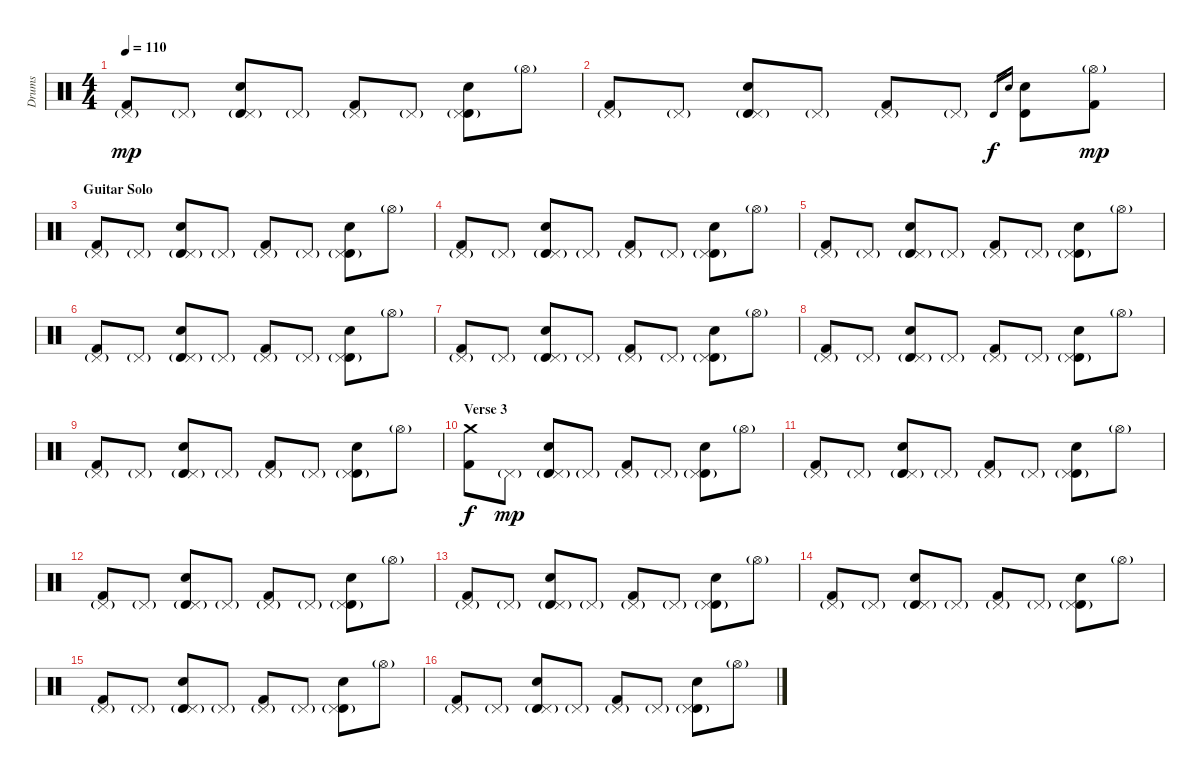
\track ("Drums" "Drums") {instrument percussion}
\staff {score}
\articulation defaults
\ts (4 4)
\tempo 110
\clef neutral
\ks c
("Kick (hit) 2" "Pedal Hi-Hat (hit)"{g}).8{dy mp} "Pedal Hi-Hat (hit)"{g}.8 ("Timbale high (hit)" "Electric Snare (hit)" "Pedal Hi-Hat (hit)"{g}).8 "Pedal Hi-Hat (hit)"{g}.8 ("Kick (hit) 2" "Pedal Hi-Hat (hit)"{g}).8 "Pedal Hi-Hat (hit)"{g}.8 ("Timbale high (hit)" "Electric Snare (hit)" "Pedal Hi-Hat (hit)"{g}).8 "Hi-Hat (open)"{g}.8 |
("Kick (hit) 2" "Pedal Hi-Hat (hit)"{g}).8 "Pedal Hi-Hat (hit)"{g}.8 ("Timbale high (hit)" "Electric Snare (hit)" "Pedal Hi-Hat (hit)"{g}).8 "Pedal Hi-Hat (hit)"{g}.8 ("Kick (hit) 2" "Pedal Hi-Hat (hit)"{g}).8 "Pedal Hi-Hat (hit)"{g}.8 "Timbale high (hit)".16{gr dy f} "Electric Snare (hit)".16{gr} ("Timbale high (hit)" "Electric Snare (hit)").8 ("Kick (hit) 2" "Hi-Hat (open)"{g}).8{dy mp} |
\section ("" "Guitar Solo")
("Kick (hit) 2" "Pedal Hi-Hat (hit)"{g}).8 "Pedal Hi-Hat (hit)"{g}.8 ("Timbale high (hit)" "Electric Snare (hit)" "Pedal Hi-Hat (hit)"{g}).8 "Pedal Hi-Hat (hit)"{g}.8 ("Kick (hit) 2" "Pedal Hi-Hat (hit)"{g}).8 "Pedal Hi-Hat (hit)"{g}.8 ("Timbale high (hit)" "Electric Snare (hit)" "Pedal Hi-Hat (hit)"{g}).8 "Hi-Hat (open)"{g}.8 |
("Kick (hit) 2" "Pedal Hi-Hat (hit)"{g}).8 "Pedal Hi-Hat (hit)"{g}.8 ("Timbale high (hit)" "Electric Snare (hit)" "Pedal Hi-Hat (hit)"{g}).8 "Pedal Hi-Hat (hit)"{g}.8 ("Kick (hit) 2" "Pedal Hi-Hat (hit)"{g}).8 "Pedal Hi-Hat (hit)"{g}.8 ("Timbale high (hit)" "Electric Snare (hit)" "Pedal Hi-Hat (hit)"{g}).8 "Hi-Hat (open)"{g}.8 |
("Kick (hit) 2" "Pedal Hi-Hat (hit)"{g}).8 "Pedal Hi-Hat (hit)"{g}.8 ("Timbale high (hit)" "Electric Snare (hit)" "Pedal Hi-Hat (hit)"{g}).8 "Pedal Hi-Hat (hit)"{g}.8 ("Kick (hit) 2" "Pedal Hi-Hat (hit)"{g}).8 "Pedal Hi-Hat (hit)"{g}.8 ("Timbale high (hit)" "Electric Snare (hit)" "Pedal Hi-Hat (hit)"{g}).8 "Hi-Hat (open)"{g}.8 |
("Kick (hit) 2" "Pedal Hi-Hat (hit)"{g}).8 "Pedal Hi-Hat (hit)"{g}.8 ("Timbale high (hit)" "Electric Snare (hit)" "Pedal Hi-Hat (hit)"{g}).8 "Pedal Hi-Hat (hit)"{g}.8 ("Kick (hit) 2" "Pedal Hi-Hat (hit)"{g}).8 "Pedal Hi-Hat (hit)"{g}.8 ("Timbale high (hit)" "Electric Snare (hit)" "Pedal Hi-Hat (hit)"{g}).8 "Hi-Hat (open)"{g}.8 |
("Kick (hit) 2" "Pedal Hi-Hat (hit)"{g}).8 "Pedal Hi-Hat (hit)"{g}.8 ("Timbale high (hit)" "Electric Snare (hit)" "Pedal Hi-Hat (hit)"{g}).8 "Pedal Hi-Hat (hit)"{g}.8 ("Kick (hit) 2" "Pedal Hi-Hat (hit)"{g}).8 "Pedal Hi-Hat (hit)"{g}.8 ("Timbale high (hit)" "Electric Snare (hit)" "Pedal Hi-Hat (hit)"{g}).8 "Hi-Hat (open)"{g}.8 |
("Kick (hit) 2" "Pedal Hi-Hat (hit)"{g}).8 "Pedal Hi-Hat (hit)"{g}.8 ("Timbale high (hit)" "Electric Snare (hit)" "Pedal Hi-Hat (hit)"{g}).8 "Pedal Hi-Hat (hit)"{g}.8 ("Kick (hit) 2" "Pedal Hi-Hat (hit)"{g}).8 "Pedal Hi-Hat (hit)"{g}.8 ("Timbale high (hit)" "Electric Snare (hit)" "Pedal Hi-Hat (hit)"{g}).8 "Hi-Hat (open)"{g}.8 |
("Kick (hit) 2" "Pedal Hi-Hat (hit)"{g}).8 "Pedal Hi-Hat (hit)"{g}.8 ("Timbale high (hit)" "Electric Snare (hit)" "Pedal Hi-Hat (hit)"{g}).8 "Pedal Hi-Hat (hit)"{g}.8 ("Kick (hit) 2" "Pedal Hi-Hat (hit)"{g}).8 "Pedal Hi-Hat (hit)"{g}.8 ("Timbale high (hit)" "Electric Snare (hit)" "Pedal Hi-Hat (hit)"{g}).8 "Hi-Hat (open)"{g}.8 |
\section ("" "Verse 3")
("Kick (hit) 2" "Crash medium (hit)").8{dy f} "Pedal Hi-Hat (hit)"{g}.8{dy mp} ("Timbale high (hit)" "Electric Snare (hit)" "Pedal Hi-Hat (hit)"{g}).8 "Pedal Hi-Hat (hit)"{g}.8 ("Kick (hit) 2" "Pedal Hi-Hat (hit)"{g}).8 "Pedal Hi-Hat (hit)"{g}.8 ("Timbale high (hit)" "Electric Snare (hit)" "Pedal Hi-Hat (hit)"{g}).8 "Hi-Hat (open)"{g}.8 |
("Kick (hit) 2" "Pedal Hi-Hat (hit)"{g}).8 "Pedal Hi-Hat (hit)"{g}.8 ("Timbale high (hit)" "Electric Snare (hit)" "Pedal Hi-Hat (hit)"{g}).8 "Pedal Hi-Hat (hit)"{g}.8 ("Kick (hit) 2" "Pedal Hi-Hat (hit)"{g}).8 "Pedal Hi-Hat (hit)"{g}.8 ("Timbale high (hit)" "Electric Snare (hit)" "Pedal Hi-Hat (hit)"{g}).8 "Hi-Hat (open)"{g}.8 |
("Kick (hit) 2" "Pedal Hi-Hat (hit)"{g}).8 "Pedal Hi-Hat (hit)"{g}.8 ("Timbale high (hit)" "Electric Snare (hit)" "Pedal Hi-Hat (hit)"{g}).8 "Pedal Hi-Hat (hit)"{g}.8 ("Kick (hit) 2" "Pedal Hi-Hat (hit)"{g}).8 "Pedal Hi-Hat (hit)"{g}.8 ("Timbale high (hit)" "Electric Snare (hit)" "Pedal Hi-Hat (hit)"{g}).8 "Hi-Hat (open)"{g}.8 |
("Kick (hit) 2" "Pedal Hi-Hat (hit)"{g}).8 "Pedal Hi-Hat (hit)"{g}.8 ("Timbale high (hit)" "Electric Snare (hit)" "Pedal Hi-Hat (hit)"{g}).8 "Pedal Hi-Hat (hit)"{g}.8 ("Kick (hit) 2" "Pedal Hi-Hat (hit)"{g}).8 "Pedal Hi-Hat (hit)"{g}.8 ("Timbale high (hit)" "Electric Snare (hit)" "Pedal Hi-Hat (hit)"{g}).8 "Hi-Hat (open)"{g}.8 |
("Kick (hit) 2" "Pedal Hi-Hat (hit)"{g}).8 "Pedal Hi-Hat (hit)"{g}.8 ("Timbale high (hit)" "Electric Snare (hit)" "Pedal Hi-Hat (hit)"{g}).8 "Pedal Hi-Hat (hit)"{g}.8 ("Kick (hit) 2" "Pedal Hi-Hat (hit)"{g}).8 "Pedal Hi-Hat (hit)"{g}.8 ("Timbale high (hit)" "Electric Snare (hit)" "Pedal Hi-Hat (hit)"{g}).8 "Hi-Hat (open)"{g}.8 |
("Kick (hit) 2" "Pedal Hi-Hat (hit)"{g}).8 "Pedal Hi-Hat (hit)"{g}.8 ("Timbale high (hit)" "Electric Snare (hit)" "Pedal Hi-Hat (hit)"{g}).8 "Pedal Hi-Hat (hit)"{g}.8 ("Kick (hit) 2" "Pedal Hi-Hat (hit)"{g}).8 "Pedal Hi-Hat (hit)"{g}.8 ("Timbale high (hit)" "Electric Snare (hit)" "Pedal Hi-Hat (hit)"{g}).8 "Hi-Hat (open)"{g}.8 |
("Kick (hit) 2" "Pedal Hi-Hat (hit)"{g}).8 "Pedal Hi-Hat (hit)"{g}.8 ("Timbale high (hit)" "Electric Snare (hit)" "Pedal Hi-Hat (hit)"{g}).8 "Pedal Hi-Hat (hit)"{g}.8 ("Kick (hit) 2" "Pedal Hi-Hat (hit)"{g}).8 "Pedal Hi-Hat (hit)"{g}.8 ("Timbale high (hit)" "Electric Snare (hit)" "Pedal Hi-Hat (hit)"{g}).8 "Hi-Hat (open)"{g}.8
